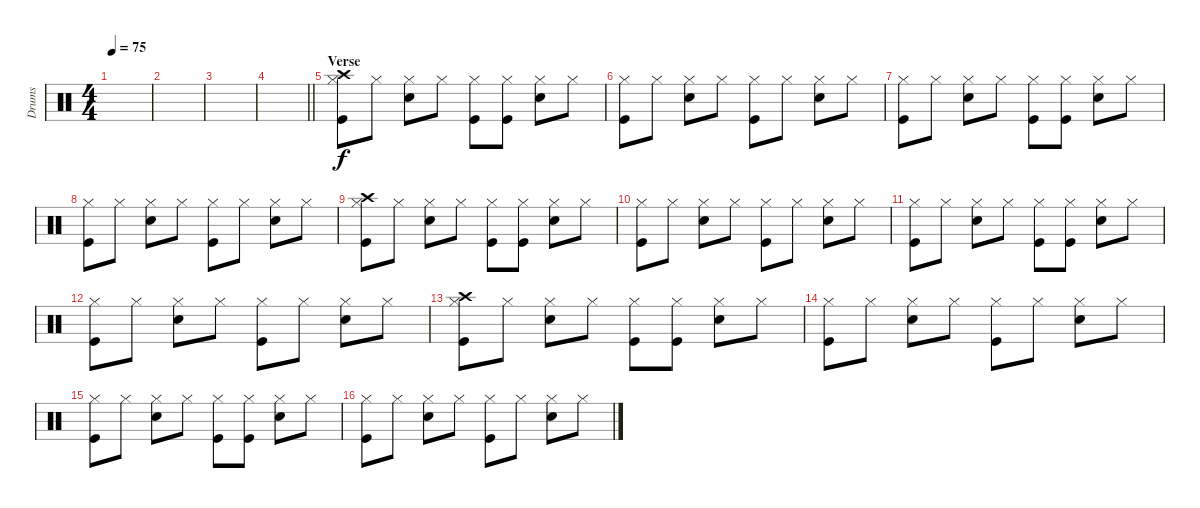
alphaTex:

\track ("Drums" "Drums") {instrument percussion}
\staff {score}
\articulation defaults
\ts (4 4)
\tempo 75
\clef neutral
\ks c
|
|
|
\barLineRight lightlight
|
\section ("" "Verse")
("Crash high (hit)" "Hi-Hat (closed)" "Kick (hit)").8 "Hi-Hat (closed)".8 ("Hi-Hat (closed)" "Snare (hit) 2").8 "Hi-Hat (closed)".8 ("Hi-Hat (closed)" "Kick (hit)").8 ("Hi-Hat (closed)" "Kick (hit)").8 ("Hi-Hat (closed)" "Snare (hit) 2").8 "Hi-Hat (closed)".8 |
("Hi-Hat (closed)" "Kick (hit)").8 "Hi-Hat (closed)".8 ("Hi-Hat (closed)" "Snare (hit) 2").8 "Hi-Hat (closed)".8 ("Hi-Hat (closed)" "Kick (hit)").8 "Hi-Hat (closed)".8 ("Hi-Hat (closed)" "Snare (hit) 2").8 "Hi-Hat (closed)".8 |
("Hi-Hat (closed)" "Kick (hit)").8 "Hi-Hat (closed)".8 ("Hi-Hat (closed)" "Snare (hit) 2").8 "Hi-Hat (closed)".8 ("Hi-Hat (closed)" "Kick (hit)").8 ("Hi-Hat (closed)" "Kick (hit)").8 ("Hi-Hat (closed)" "Snare (hit) 2").8 "Hi-Hat (closed)".8 |
("Hi-Hat (closed)" "Kick (hit)").8 "Hi-Hat (closed)".8 ("Hi-Hat (closed)" "Snare (hit) 2").8 "Hi-Hat (closed)".8 ("Hi-Hat (closed)" "Kick (hit)").8 "Hi-Hat (closed)".8 ("Hi-Hat (closed)" "Snare (hit) 2").8 "Hi-Hat (closed)".8 |
("Crash high (hit)" "Hi-Hat (closed)" "Kick (hit)").8 "Hi-Hat (closed)".8 ("Hi-Hat (closed)" "Snare (hit) 2").8 "Hi-Hat (closed)".8 ("Hi-Hat (closed)" "Kick (hit)").8 ("Hi-Hat (closed)" "Kick (hit)").8 ("Hi-Hat (closed)" "Snare (hit) 2").8 "Hi-Hat (closed)".8 |
("Hi-Hat (closed)" "Kick (hit)").8 "Hi-Hat (closed)".8 ("Hi-Hat (closed)" "Snare (hit) 2").8 "Hi-Hat (closed)".8 ("Hi-Hat (closed)" "Kick (hit)").8 "Hi-Hat (closed)".8 ("Hi-Hat (closed)" "Snare (hit) 2").8 "Hi-Hat (closed)".8 |
("Hi-Hat (closed)" "Kick (hit)").8 "Hi-Hat (closed)".8 ("Hi-Hat (closed)" "Snare (hit) 2").8 "Hi-Hat (closed)".8 ("Hi-Hat (closed)" "Kick (hit)").8 ("Hi-Hat (closed)" "Kick (hit)").8 ("Hi-Hat (closed)" "Snare (hit) 2").8 "Hi-Hat (closed)".8 |
("Hi-Hat (closed)" "Kick (hit)").8 "Hi-Hat (closed)".8 ("Hi-Hat (closed)" "Snare (hit) 2").8 "Hi-Hat (closed)".8 ("Hi-Hat (closed)" "Kick (hit)").8 "Hi-Hat (closed)".8 ("Hi-Hat (closed)" "Snare (hit) 2").8 "Hi-Hat (closed)".8 |
("Crash high (hit)" "Hi-Hat (closed)" "Kick (hit)").8 "Hi-Hat (closed)".8 ("Hi-Hat (closed)" "Snare (hit) 2").8 "Hi-Hat (closed)".8 ("Hi-Hat (closed)" "Kick (hit)").8 ("Hi-Hat (closed)" "Kick (hit)").8 ("Hi-Hat (closed)" "Snare (hit) 2").8 "Hi-Hat (closed)".8 |
("Hi-Hat (closed)" "Kick (hit)").8 "Hi-Hat (closed)".8 ("Hi-Hat (closed)" "Snare (hit) 2").8 "Hi-Hat (closed)".8 ("Hi-Hat (closed)" "Kick (hit)").8 "Hi-Hat (closed)".8 ("Hi-Hat (closed)" "Snare (hit) 2").8 "Hi-Hat (closed)".8 |
("Hi-Hat (closed)" "Kick (hit)").8 "Hi-Hat (closed)".8 ("Hi-Hat (closed)" "Snare (hit) 2").8 "Hi-Hat (closed)".8 ("Hi-Hat (closed)" "Kick (hit)").8 ("Hi-Hat (closed)" "Kick (hit)").8 ("Hi-Hat (closed)" "Snare (hit) 2").8 "Hi-Hat (closed)".8 |
("Hi-Hat (closed)" "Kick (hit)").8 "Hi-Hat (closed)".8 ("Hi-Hat (closed)" "Snare (hit) 2").8 "Hi-Hat (closed)".8 ("Hi-Hat (closed)" "Kick (hit)").8 "Hi-Hat (closed)".8 ("Hi-Hat (closed)" "Snare (hit) 2").8 "Hi-Hat (closed)".8
